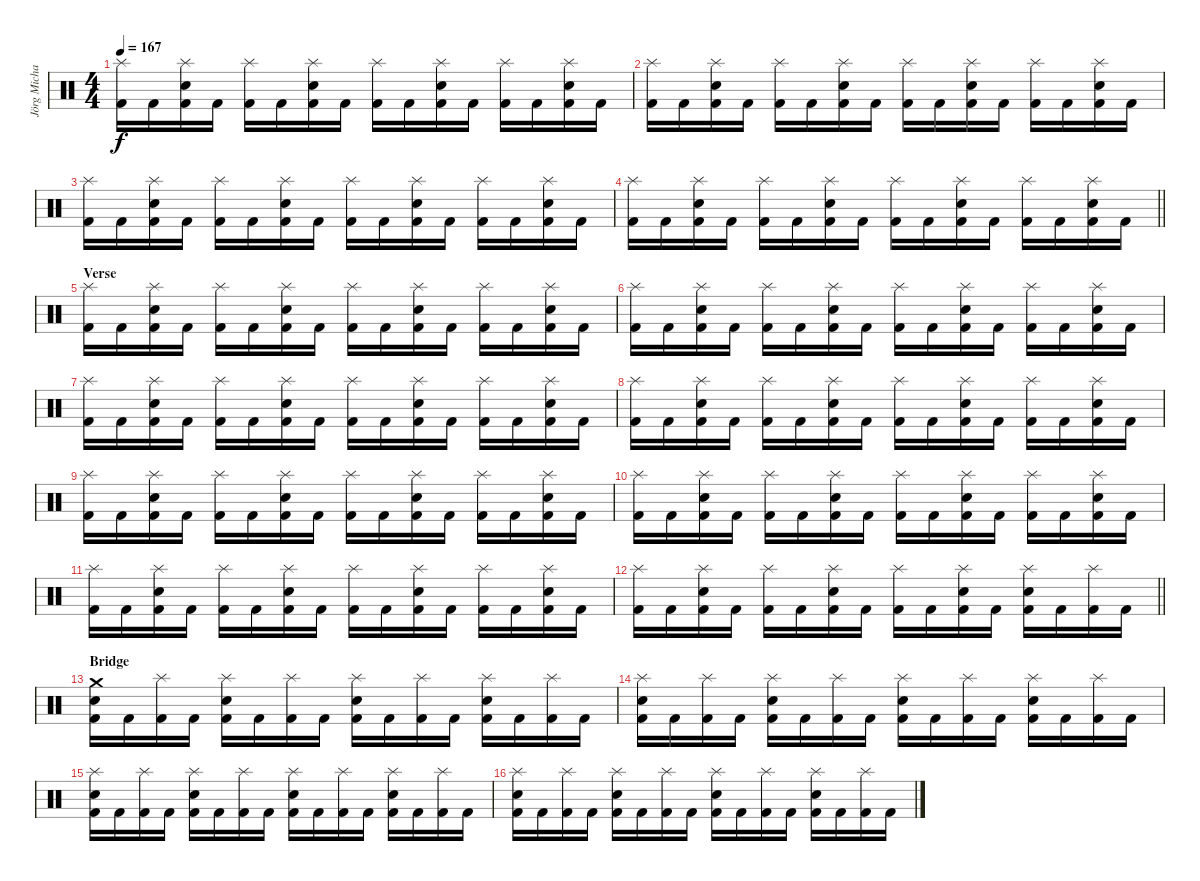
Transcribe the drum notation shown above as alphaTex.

\track ("Jörg Michael" "Jörg Micha") {instrument percussion}
\staff {score}
\articulation defaults
\ts (4 4)
\tempo 167
\clef neutral
\ks c
("Splash (hit)" "Kick (hit) 2").16{dy f} "Kick (hit) 2".16 ("Splash (hit)" "Snare (hit) 2" "Kick (hit) 2").16 "Kick (hit) 2".16 ("Splash (hit)" "Kick (hit) 2").16 "Kick (hit) 2".16 ("Splash (hit)" "Snare (hit) 2" "Kick (hit) 2").16 "Kick (hit) 2".16 ("Splash (hit)" "Kick (hit) 2").16 "Kick (hit) 2".16 ("Splash (hit)" "Snare (hit) 2" "Kick (hit) 2").16 "Kick (hit) 2".16 ("Splash (hit)" "Kick (hit) 2").16 "Kick (hit) 2".16 ("Splash (hit)" "Snare (hit) 2" "Kick (hit) 2").16 "Kick (hit) 2".16 |
("Splash (hit)" "Kick (hit) 2").16 "Kick (hit) 2".16 ("Splash (hit)" "Snare (hit) 2" "Kick (hit) 2").16 "Kick (hit) 2".16 ("Splash (hit)" "Kick (hit) 2").16 "Kick (hit) 2".16 ("Splash (hit)" "Snare (hit) 2" "Kick (hit) 2").16 "Kick (hit) 2".16 ("Splash (hit)" "Kick (hit) 2").16 "Kick (hit) 2".16 ("Splash (hit)" "Snare (hit) 2" "Kick (hit) 2").16 "Kick (hit) 2".16 ("Splash (hit)" "Kick (hit) 2").16 "Kick (hit) 2".16 ("Splash (hit)" "Snare (hit) 2" "Kick (hit) 2").16 "Kick (hit) 2".16 |
("Splash (hit)" "Kick (hit) 2").16 "Kick (hit) 2".16 ("Splash (hit)" "Snare (hit) 2" "Kick (hit) 2").16 "Kick (hit) 2".16 ("Splash (hit)" "Kick (hit) 2").16 "Kick (hit) 2".16 ("Splash (hit)" "Snare (hit) 2" "Kick (hit) 2").16 "Kick (hit) 2".16 ("Splash (hit)" "Kick (hit) 2").16 "Kick (hit) 2".16 ("Splash (hit)" "Snare (hit) 2" "Kick (hit) 2").16 "Kick (hit) 2".16 ("Splash (hit)" "Kick (hit) 2").16 "Kick (hit) 2".16 ("Splash (hit)" "Snare (hit) 2" "Kick (hit) 2").16 "Kick (hit) 2".16 |
\barLineRight lightlight
("Splash (hit)" "Kick (hit) 2").16 "Kick (hit) 2".16 ("Splash (hit)" "Snare (hit) 2" "Kick (hit) 2").16 "Kick (hit) 2".16 ("Splash (hit)" "Kick (hit) 2").16 "Kick (hit) 2".16 ("Splash (hit)" "Snare (hit) 2" "Kick (hit) 2").16 "Kick (hit) 2".16 ("Splash (hit)" "Kick (hit) 2").16 "Kick (hit) 2".16 ("Splash (hit)" "Snare (hit) 2" "Kick (hit) 2").16 "Kick (hit) 2".16 ("Splash (hit)" "Kick (hit) 2").16 "Kick (hit) 2".16 ("Splash (hit)" "Snare (hit) 2" "Kick (hit) 2").16 "Kick (hit) 2".16 |
\section ("" "Verse")
("Splash (hit)" "Kick (hit) 2").16 "Kick (hit) 2".16 ("Splash (hit)" "Snare (hit) 2" "Kick (hit) 2").16 "Kick (hit) 2".16 ("Splash (hit)" "Kick (hit) 2").16 "Kick (hit) 2".16 ("Splash (hit)" "Snare (hit) 2" "Kick (hit) 2").16 "Kick (hit) 2".16 ("Splash (hit)" "Kick (hit) 2").16 "Kick (hit) 2".16 ("Splash (hit)" "Snare (hit) 2" "Kick (hit) 2").16 "Kick (hit) 2".16 ("Splash (hit)" "Kick (hit) 2").16 "Kick (hit) 2".16 ("Splash (hit)" "Snare (hit) 2" "Kick (hit) 2").16 "Kick (hit) 2".16 |
("Splash (hit)" "Kick (hit) 2").16 "Kick (hit) 2".16 ("Splash (hit)" "Snare (hit) 2" "Kick (hit) 2").16 "Kick (hit) 2".16 ("Splash (hit)" "Kick (hit) 2").16 "Kick (hit) 2".16 ("Splash (hit)" "Snare (hit) 2" "Kick (hit) 2").16 "Kick (hit) 2".16 ("Splash (hit)" "Kick (hit) 2").16 "Kick (hit) 2".16 ("Splash (hit)" "Snare (hit) 2" "Kick (hit) 2").16 "Kick (hit) 2".16 ("Splash (hit)" "Kick (hit) 2").16 "Kick (hit) 2".16 ("Splash (hit)" "Snare (hit) 2" "Kick (hit) 2").16 "Kick (hit) 2".16 |
("Splash (hit)" "Kick (hit) 2").16 "Kick (hit) 2".16 ("Splash (hit)" "Snare (hit) 2" "Kick (hit) 2").16 "Kick (hit) 2".16 ("Splash (hit)" "Kick (hit) 2").16 "Kick (hit) 2".16 ("Splash (hit)" "Snare (hit) 2" "Kick (hit) 2").16 "Kick (hit) 2".16 ("Splash (hit)" "Kick (hit) 2").16 "Kick (hit) 2".16 ("Splash (hit)" "Snare (hit) 2" "Kick (hit) 2").16 "Kick (hit) 2".16 ("Splash (hit)" "Kick (hit) 2").16 "Kick (hit) 2".16 ("Splash (hit)" "Snare (hit) 2" "Kick (hit) 2").16 "Kick (hit) 2".16 |
("Splash (hit)" "Kick (hit) 2").16 "Kick (hit) 2".16 ("Splash (hit)" "Snare (hit) 2" "Kick (hit) 2").16 "Kick (hit) 2".16 ("Splash (hit)" "Kick (hit) 2").16 "Kick (hit) 2".16 ("Splash (hit)" "Snare (hit) 2" "Kick (hit) 2").16 "Kick (hit) 2".16 ("Splash (hit)" "Kick (hit) 2").16 "Kick (hit) 2".16 ("Splash (hit)" "Snare (hit) 2" "Kick (hit) 2").16 "Kick (hit) 2".16 ("Splash (hit)" "Kick (hit) 2").16 "Kick (hit) 2".16 ("Splash (hit)" "Snare (hit) 2" "Kick (hit) 2").16 "Kick (hit) 2".16 |
("Splash (hit)" "Kick (hit) 2").16 "Kick (hit) 2".16 ("Splash (hit)" "Snare (hit) 2" "Kick (hit) 2").16 "Kick (hit) 2".16 ("Splash (hit)" "Kick (hit) 2").16 "Kick (hit) 2".16 ("Splash (hit)" "Snare (hit) 2" "Kick (hit) 2").16 "Kick (hit) 2".16 ("Splash (hit)" "Kick (hit) 2").16 "Kick (hit) 2".16 ("Splash (hit)" "Snare (hit) 2" "Kick (hit) 2").16 "Kick (hit) 2".16 ("Splash (hit)" "Kick (hit) 2").16 "Kick (hit) 2".16 ("Splash (hit)" "Snare (hit) 2" "Kick (hit) 2").16 "Kick (hit) 2".16 |
("Splash (hit)" "Kick (hit) 2").16 "Kick (hit) 2".16 ("Splash (hit)" "Snare (hit) 2" "Kick (hit) 2").16 "Kick (hit) 2".16 ("Splash (hit)" "Kick (hit) 2").16 "Kick (hit) 2".16 ("Splash (hit)" "Snare (hit) 2" "Kick (hit) 2").16 "Kick (hit) 2".16 ("Splash (hit)" "Kick (hit) 2").16 "Kick (hit) 2".16 ("Splash (hit)" "Snare (hit) 2" "Kick (hit) 2").16 "Kick (hit) 2".16 ("Splash (hit)" "Kick (hit) 2").16 "Kick (hit) 2".16 ("Splash (hit)" "Snare (hit) 2" "Kick (hit) 2").16 "Kick (hit) 2".16 |
("Splash (hit)" "Kick (hit) 2").16 "Kick (hit) 2".16 ("Splash (hit)" "Snare (hit) 2" "Kick (hit) 2").16 "Kick (hit) 2".16 ("Splash (hit)" "Kick (hit) 2").16 "Kick (hit) 2".16 ("Splash (hit)" "Snare (hit) 2" "Kick (hit) 2").16 "Kick (hit) 2".16 ("Splash (hit)" "Kick (hit) 2").16 "Kick (hit) 2".16 ("Splash (hit)" "Snare (hit) 2" "Kick (hit) 2").16 "Kick (hit) 2".16 ("Splash (hit)" "Kick (hit) 2").16 "Kick (hit) 2".16 ("Splash (hit)" "Snare (hit) 2" "Kick (hit) 2").16 "Kick (hit) 2".16 |
\barLineRight lightlight
("Splash (hit)" "Kick (hit) 2").16 "Kick (hit) 2".16 ("Splash (hit)" "Snare (hit) 2" "Kick (hit) 2").16 "Kick (hit) 2".16 ("Splash (hit)" "Kick (hit) 2").16 "Kick (hit) 2".16 ("Splash (hit)" "Snare (hit) 2" "Kick (hit) 2").16 "Kick (hit) 2".16 ("Splash (hit)" "Kick (hit) 2").16 "Kick (hit) 2".16 ("Splash (hit)" "Snare (hit) 2" "Kick (hit) 2").16 "Kick (hit) 2".16 ("Splash (hit)" "Snare (hit) 2" "Kick (hit) 2").16 "Kick (hit) 2".16 ("Splash (hit)" "Kick (hit) 2").16 "Kick (hit) 2".16 |
\section ("" "Bridge")
("Crash medium (hit)" "Snare (hit) 2" "Kick (hit) 2").16 "Kick (hit) 2".16 ("Splash (hit)" "Kick (hit) 2").16 "Kick (hit) 2".16 ("Splash (hit)" "Snare (hit) 2" "Kick (hit) 2").16 "Kick (hit) 2".16 ("Splash (hit)" "Kick (hit) 2").16 "Kick (hit) 2".16 ("Splash (hit)" "Snare (hit) 2" "Kick (hit) 2").16 "Kick (hit) 2".16 ("Splash (hit)" "Kick (hit) 2").16 "Kick (hit) 2".16 ("Splash (hit)" "Snare (hit) 2" "Kick (hit) 2").16 "Kick (hit) 2".16 ("Splash (hit)" "Kick (hit) 2").16 "Kick (hit) 2".16 |
("Splash (hit)" "Snare (hit) 2" "Kick (hit) 2").16 "Kick (hit) 2".16 ("Splash (hit)" "Kick (hit) 2").16 "Kick (hit) 2".16 ("Splash (hit)" "Snare (hit) 2" "Kick (hit) 2").16 "Kick (hit) 2".16 ("Splash (hit)" "Kick (hit) 2").16 "Kick (hit) 2".16 ("Splash (hit)" "Snare (hit) 2" "Kick (hit) 2").16 "Kick (hit) 2".16 ("Splash (hit)" "Kick (hit) 2").16 "Kick (hit) 2".16 ("Splash (hit)" "Snare (hit) 2" "Kick (hit) 2").16 "Kick (hit) 2".16 ("Splash (hit)" "Kick (hit) 2").16 "Kick (hit) 2".16 |
("Splash (hit)" "Snare (hit) 2" "Kick (hit) 2").16 "Kick (hit) 2".16 ("Splash (hit)" "Kick (hit) 2").16 "Kick (hit) 2".16 ("Splash (hit)" "Snare (hit) 2" "Kick (hit) 2").16 "Kick (hit) 2".16 ("Splash (hit)" "Kick (hit) 2").16 "Kick (hit) 2".16 ("Splash (hit)" "Snare (hit) 2" "Kick (hit) 2").16 "Kick (hit) 2".16 ("Splash (hit)" "Kick (hit) 2").16 "Kick (hit) 2".16 ("Splash (hit)" "Snare (hit) 2" "Kick (hit) 2").16 "Kick (hit) 2".16 ("Splash (hit)" "Kick (hit) 2").16 "Kick (hit) 2".16 |
("Splash (hit)" "Snare (hit) 2" "Kick (hit) 2").16 "Kick (hit) 2".16 ("Splash (hit)" "Kick (hit) 2").16 "Kick (hit) 2".16 ("Splash (hit)" "Snare (hit) 2" "Kick (hit) 2").16 "Kick (hit) 2".16 ("Splash (hit)" "Kick (hit) 2").16 "Kick (hit) 2".16 ("Splash (hit)" "Snare (hit) 2" "Kick (hit) 2").16 "Kick (hit) 2".16 ("Splash (hit)" "Kick (hit) 2").16 "Kick (hit) 2".16 ("Splash (hit)" "Snare (hit) 2" "Kick (hit) 2").16 "Kick (hit) 2".16 ("Splash (hit)" "Kick (hit) 2").16 "Kick (hit) 2".16
